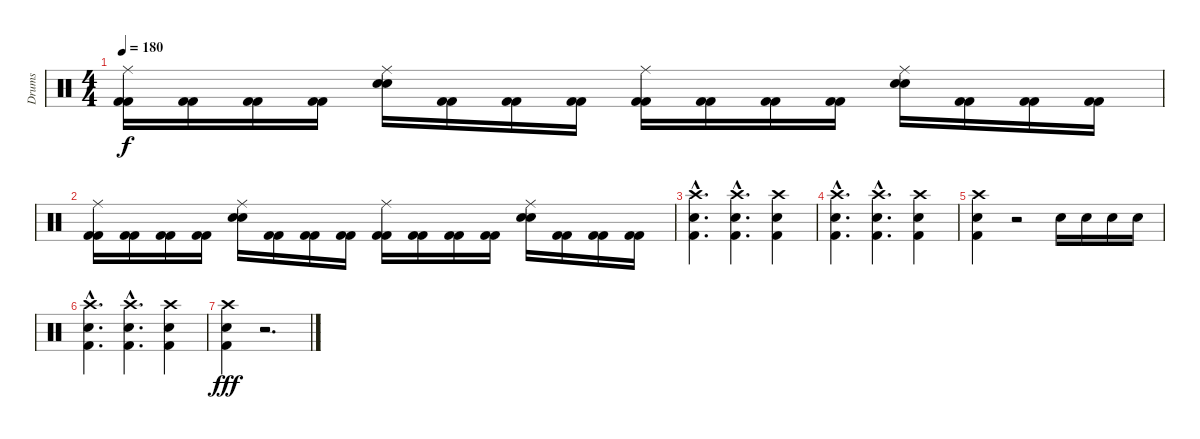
\track ("Drums" "Drums") {instrument percussion}
\staff {score}
\articulation defaults
\ts (4 4)
\tempo 180
\clef neutral
\ks c
("Ride (middle)" "Kick (hit) 2" "Kick (hit) 2").16{dy f} ("Kick (hit) 2" "Kick (hit) 2").16 ("Kick (hit) 2" "Kick (hit) 2").16 ("Kick (hit) 2" "Kick (hit) 2").16 ("Ride (middle)" "Snare (hit) 2" "Snare (hit) 2").16 ("Kick (hit) 2" "Kick (hit) 2").16 ("Kick (hit) 2" "Kick (hit) 2").16 ("Kick (hit) 2" "Kick (hit) 2").16 ("Ride (middle)" "Kick (hit) 2" "Kick (hit) 2").16 ("Kick (hit) 2" "Kick (hit) 2").16 ("Kick (hit) 2" "Kick (hit) 2").16 ("Kick (hit) 2" "Kick (hit) 2").16 ("Ride (middle)" "Snare (hit) 2" "Snare (hit) 2").16 ("Kick (hit) 2" "Kick (hit) 2").16 ("Kick (hit) 2" "Kick (hit) 2").16 ("Kick (hit) 2" "Kick (hit) 2").16 |
("Ride (middle)" "Kick (hit) 2" "Kick (hit) 2").16 ("Kick (hit) 2" "Kick (hit) 2").16 ("Kick (hit) 2" "Kick (hit) 2").16 ("Kick (hit) 2" "Kick (hit) 2").16 ("Ride (middle)" "Snare (hit) 2" "Snare (hit) 2").16 ("Kick (hit) 2" "Kick (hit) 2").16 ("Kick (hit) 2" "Kick (hit) 2").16 ("Kick (hit) 2" "Kick (hit) 2").16 ("Ride (middle)" "Kick (hit) 2" "Kick (hit) 2").16 ("Kick (hit) 2" "Kick (hit) 2").16 ("Kick (hit) 2" "Kick (hit) 2").16 ("Kick (hit) 2" "Kick (hit) 2").16 ("Ride (middle)" "Snare (hit) 2" "Snare (hit) 2").16 ("Kick (hit) 2" "Kick (hit) 2").16 ("Kick (hit) 2" "Kick (hit) 2").16 ("Kick (hit) 2" "Kick (hit) 2").16 |
("Crash high (hit)"{hac} "Snare (hit) 2"{hac} "Kick (hit) 2"{hac}).4{d} ("Crash high (hit)"{hac} "Snare (hit) 2"{hac} "Kick (hit) 2"{hac}).4{d} ("Crash high (hit)" "Snare (hit) 2" "Kick (hit) 2").4 |
("Crash high (hit)"{hac} "Snare (hit) 2"{hac} "Kick (hit) 2"{hac}).4{d} ("Crash high (hit)"{hac} "Snare (hit) 2"{hac} "Kick (hit) 2"{hac}).4{d} ("Crash high (hit)" "Snare (hit) 2" "Kick (hit) 2").4 |
("Crash high (hit)" "Snare (hit) 2" "Kick (hit) 2").4 r.2 "Snare (hit) 2".16 "Snare (hit) 2".16 "Snare (hit) 2".16 "Snare (hit) 2".16 |
("Crash high (hit)"{hac} "Snare (hit) 2"{hac} "Kick (hit) 2"{hac}).4{d} ("Crash high (hit)"{hac} "Snare (hit) 2"{hac} "Kick (hit) 2"{hac}).4{d} ("Crash high (hit)" "Snare (hit) 2" "Kick (hit) 2").4 |
("Crash high (hit)" "Snare (hit) 2" "Kick (hit) 2").4{dy fff} r.2{d}
